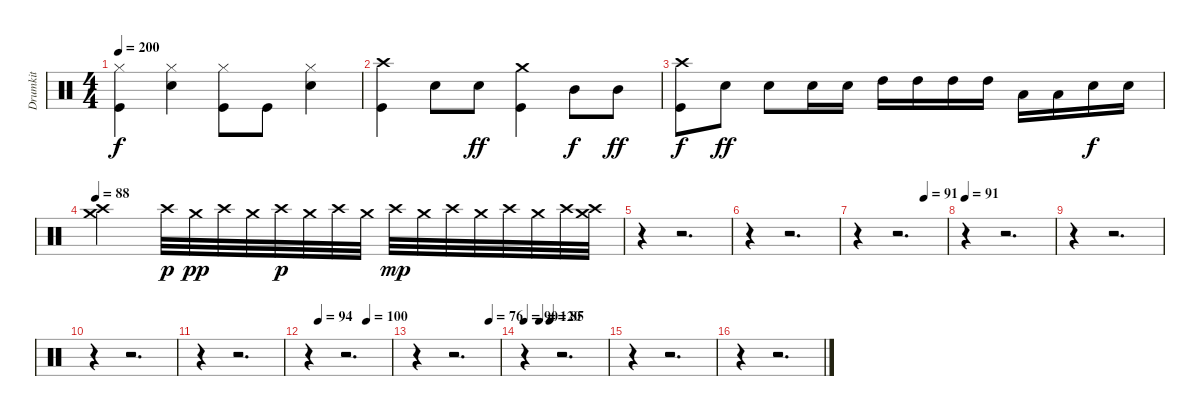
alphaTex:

\track ("Drumkit" "Drumkit") {instrument percussion}
\staff {score}
\articulation defaults
\ts (4 4)
\tempo 200
\clef neutral
\ks c
("Hi-Hat (closed)" "Kick (hit)").4{dy f} ("Hi-Hat (closed)" "Snare (hit) 2").4 ("Hi-Hat (closed)" "Kick (hit)").8 "Kick (hit)".8 ("Hi-Hat (closed)" "Snare (hit) 2").4 |
("Crash high (hit)" "Kick (hit)").4 "Snare (hit) 2".8 "Snare (hit) 2".8{dy ff} ("Crash medium (hit)" "Kick (hit)").4 "Mid Tom (hit)".8{dy f} "Mid Tom (hit)".8{dy ff} |
("Crash high (hit)" "Kick (hit)").8{dy f} "Snare (hit) 2".8{dy ff} "Snare (hit) 2".8 "Snare (hit) 2".16 "Snare (hit) 2".16 "High Tom (hit)".16 "High Tom (hit)".16 "High Tom (hit)".16 "High Tom (hit)".16 "Low Tom (hit)".16 "Low Tom (hit)".16 "Snare (hit) 2".16{dy f} "Snare (hit) 2".16 |
\tempo 88
("Crash high (hit)" "Crash medium (hit)").2 "Crash high (hit)".32{dy p} "Crash medium (hit)".32{dy pp} "Crash high (hit)".32 "Crash medium (hit)".32 "Crash high (hit)".32{dy p} "Crash medium (hit)".32 "Crash high (hit)".32 "Crash medium (hit)".32 "Crash high (hit)".32{dy mp} "Crash medium (hit)".32 "Crash high (hit)".32 "Crash medium (hit)".32 "Crash high (hit)".32 "Crash medium (hit)".32 "Crash high (hit)".32 ("Crash medium (hit)" "Crash high (hit)").32 |
r.4 r.2{d} |
r.4 r.2{d} |
\tempo (91 0.75)
r.4 r.2{d} |
\tempo 91
r.4 r.2{d} |
r.4 r.2{d} |
r.4 r.2{d} |
r.4 r.2{d} |
\tempo (94 0.125)
\tempo (100 0.7083333333333334)
r.4 r.2{d} |
\tempo (76 0.875)
r.4 r.2{d} |
\tempo 90
\tempo (120 0.1875)
\tempo (85 0.3125)
r.4 r.2{d} |
r.4 r.2{d} |
r.4 r.2{d}
